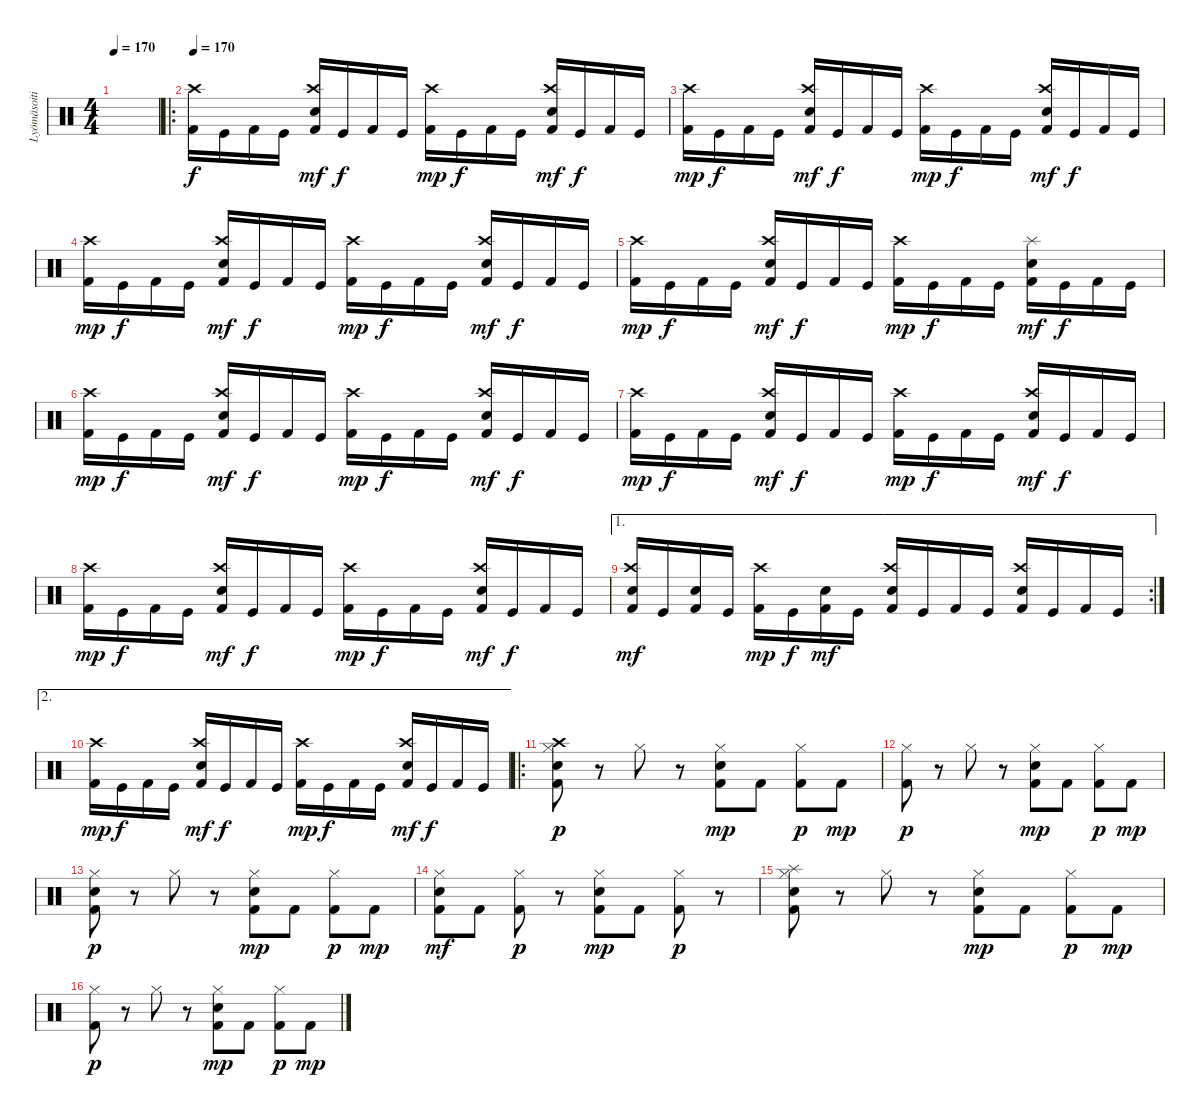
\track ("Lyömäsoitin" "Lyömäsoiti") {instrument percussion}
\staff {score}
\articulation defaults
\ts (4 4)
\tempo 170
\clef neutral
\ks c
|
\ro
\tempo 170
("Kick (hit) 2" "Crash high (hit)").16 "Kick (hit)".16{dy f} "Kick (hit) 2".16 "Kick (hit)".16 ("Kick (hit) 2" "Crash high (hit)" "Snare (hit) 2").16{dy mf} "Kick (hit)".16{dy f} "Kick (hit) 2".16 "Kick (hit)".16 ("Kick (hit) 2" "Crash high (hit)").16{dy mp} "Kick (hit)".16{dy f} "Kick (hit) 2".16 "Kick (hit)".16 ("Kick (hit) 2" "Crash high (hit)" "Snare (hit) 2").16{dy mf} "Kick (hit)".16{dy f} "Kick (hit) 2".16 "Kick (hit)".16 |
("Kick (hit) 2" "Crash high (hit)").16{dy mp} "Kick (hit)".16{dy f} "Kick (hit) 2".16 "Kick (hit)".16 ("Kick (hit) 2" "Crash high (hit)" "Snare (hit) 2").16{dy mf} "Kick (hit)".16{dy f} "Kick (hit) 2".16 "Kick (hit)".16 ("Kick (hit) 2" "Crash high (hit)").16{dy mp} "Kick (hit)".16{dy f} "Kick (hit) 2".16 "Kick (hit)".16 ("Kick (hit) 2" "Crash high (hit)" "Snare (hit) 2").16{dy mf} "Kick (hit)".16{dy f} "Kick (hit) 2".16 "Kick (hit)".16 |
("Kick (hit) 2" "Crash high (hit)").16{dy mp} "Kick (hit)".16{dy f} "Kick (hit) 2".16 "Kick (hit)".16 ("Kick (hit) 2" "Crash high (hit)" "Snare (hit) 2").16{dy mf} "Kick (hit)".16{dy f} "Kick (hit) 2".16 "Kick (hit)".16 ("Kick (hit) 2" "Crash high (hit)").16{dy mp} "Kick (hit)".16{dy f} "Kick (hit) 2".16 "Kick (hit)".16 ("Kick (hit) 2" "Crash high (hit)" "Snare (hit) 2").16{dy mf} "Kick (hit)".16{dy f} "Kick (hit) 2".16 "Kick (hit)".16 |
("Kick (hit) 2" "Crash high (hit)").16{dy mp} "Kick (hit)".16{dy f} "Kick (hit) 2".16 "Kick (hit)".16 ("Kick (hit) 2" "Crash high (hit)" "Snare (hit) 2").16{dy mf} "Kick (hit)".16{dy f} "Kick (hit) 2".16 "Kick (hit)".16 ("Kick (hit) 2" "Crash high (hit)").16{dy mp} "Kick (hit)".16{dy f} "Kick (hit) 2".16 "Kick (hit)".16 ("Kick (hit) 2" "Splash (hit)" "Snare (hit) 2").16{dy mf} "Kick (hit)".16{dy f} "Kick (hit) 2".16 "Kick (hit)".16 |
("Kick (hit) 2" "Crash high (hit)").16{dy mp} "Kick (hit)".16{dy f} "Kick (hit) 2".16 "Kick (hit)".16 ("Kick (hit) 2" "Crash high (hit)" "Snare (hit) 2").16{dy mf} "Kick (hit)".16{dy f} "Kick (hit) 2".16 "Kick (hit)".16 ("Kick (hit) 2" "Crash high (hit)").16{dy mp} "Kick (hit)".16{dy f} "Kick (hit) 2".16 "Kick (hit)".16 ("Kick (hit) 2" "Crash high (hit)" "Snare (hit) 2").16{dy mf} "Kick (hit)".16{dy f} "Kick (hit) 2".16 "Kick (hit)".16 |
("Kick (hit) 2" "Crash high (hit)").16{dy mp} "Kick (hit)".16{dy f} "Kick (hit) 2".16 "Kick (hit)".16 ("Kick (hit) 2" "Crash high (hit)" "Snare (hit) 2").16{dy mf} "Kick (hit)".16{dy f} "Kick (hit) 2".16 "Kick (hit)".16 ("Kick (hit) 2" "Crash high (hit)").16{dy mp} "Kick (hit)".16{dy f} "Kick (hit) 2".16 "Kick (hit)".16 ("Kick (hit) 2" "Crash high (hit)" "Snare (hit) 2").16{dy mf} "Kick (hit)".16{dy f} "Kick (hit) 2".16 "Kick (hit)".16 |
("Kick (hit) 2" "Crash high (hit)").16{dy mp} "Kick (hit)".16{dy f} "Kick (hit) 2".16 "Kick (hit)".16 ("Kick (hit) 2" "Crash high (hit)" "Snare (hit) 2").16{dy mf} "Kick (hit)".16{dy f} "Kick (hit) 2".16 "Kick (hit)".16 ("Kick (hit) 2" "Crash high (hit)").16{dy mp} "Kick (hit)".16{dy f} "Kick (hit) 2".16 "Kick (hit)".16 ("Kick (hit) 2" "Crash high (hit)" "Snare (hit) 2").16{dy mf} "Kick (hit)".16{dy f} "Kick (hit) 2".16 "Kick (hit)".16 |
\ae 1
\rc 2
("Kick (hit) 2" "Crash high (hit)" "Electric Snare (hit)").16{dy mf} "Kick (hit)".16 ("Kick (hit) 2" "Electric Snare (hit)").16 "Kick (hit)".16 ("Kick (hit) 2" "Crash high (hit)").16{dy mp} "Kick (hit)".16{dy f} ("Kick (hit) 2" "Electric Snare (hit)").16{dy mf} "Kick (hit)".16 ("Kick (hit) 2" "Crash high (hit)" "Electric Snare (hit)").16 "Kick (hit)".16 "Kick (hit) 2".16 "Kick (hit)".16 ("Kick (hit) 2" "Crash high (hit)" "Electric Snare (hit)").16 "Kick (hit)".16 "Kick (hit) 2".16 "Kick (hit)".16 |
\ae 2
("Kick (hit) 2" "Crash high (hit)").16{dy mp} "Kick (hit)".16{dy f} "Kick (hit) 2".16 "Kick (hit)".16 ("Kick (hit) 2" "Crash high (hit)" "Snare (hit) 2").16{dy mf} "Kick (hit)".16{dy f} "Kick (hit) 2".16 "Kick (hit)".16 ("Kick (hit) 2" "Crash high (hit)").16{dy mp} "Kick (hit)".16{dy f} "Kick (hit) 2".16 "Kick (hit)".16 ("Kick (hit) 2" "Crash high (hit)" "Snare (hit) 2").16{dy mf} "Kick (hit)".16{dy f} "Kick (hit) 2".16 "Kick (hit)".16 |
\ro
("Kick (hit) 2" "Hi-Hat (closed)" "Crash high (hit)" "Electric Snare (hit)").8{dy p} r.8 "Hi-Hat (closed)".8 r.8 ("Kick (hit) 2" "Hi-Hat (closed)" "Snare (hit) 2").8{dy mp} "Kick (hit) 2".8 ("Kick (hit) 2" "Hi-Hat (closed)").8{dy p} "Kick (hit) 2".8{dy mp} |
("Kick (hit) 2" "Hi-Hat (closed)").8{dy p} r.8 "Hi-Hat (closed)".8 r.8 ("Kick (hit) 2" "Hi-Hat (closed)" "Snare (hit) 2").8{dy mp} "Kick (hit) 2".8 ("Kick (hit) 2" "Hi-Hat (closed)").8{dy p} "Kick (hit) 2".8{dy mp} |
("Kick (hit) 2" "Hi-Hat (closed)" "Electric Snare (hit)").8{dy p} r.8 "Hi-Hat (closed)".8 r.8 ("Kick (hit) 2" "Hi-Hat (closed)" "Snare (hit) 2").8{dy mp} "Kick (hit) 2".8 ("Kick (hit) 2" "Hi-Hat (closed)").8{dy p} "Kick (hit) 2".8{dy mp} |
("Kick (hit) 2" "Hi-Hat (closed)" "Electric Snare (hit)").8{dy mf} "Kick (hit) 2".8 ("Kick (hit) 2" "Hi-Hat (closed)").8{dy p} r.8 ("Kick (hit) 2" "Hi-Hat (closed)" "Snare (hit) 2").8{dy mp} "Kick (hit) 2".8 ("Kick (hit) 2" "Hi-Hat (closed)").8{dy p} r.8 |
("Kick (hit) 2" "Hi-Hat (closed)" "Splash (hit)" "Electric Snare (hit)").8 r.8 "Hi-Hat (closed)".8 r.8 ("Kick (hit) 2" "Hi-Hat (closed)" "Snare (hit) 2").8{dy mp} "Kick (hit) 2".8 ("Kick (hit) 2" "Hi-Hat (closed)").8{dy p} "Kick (hit) 2".8{dy mp} |
("Kick (hit) 2" "Hi-Hat (closed)").8{dy p} r.8 "Hi-Hat (closed)".8 r.8 ("Kick (hit) 2" "Hi-Hat (closed)" "Snare (hit) 2").8{dy mp} "Kick (hit) 2".8 ("Kick (hit) 2" "Hi-Hat (closed)").8{dy p} "Kick (hit) 2".8{dy mp}
